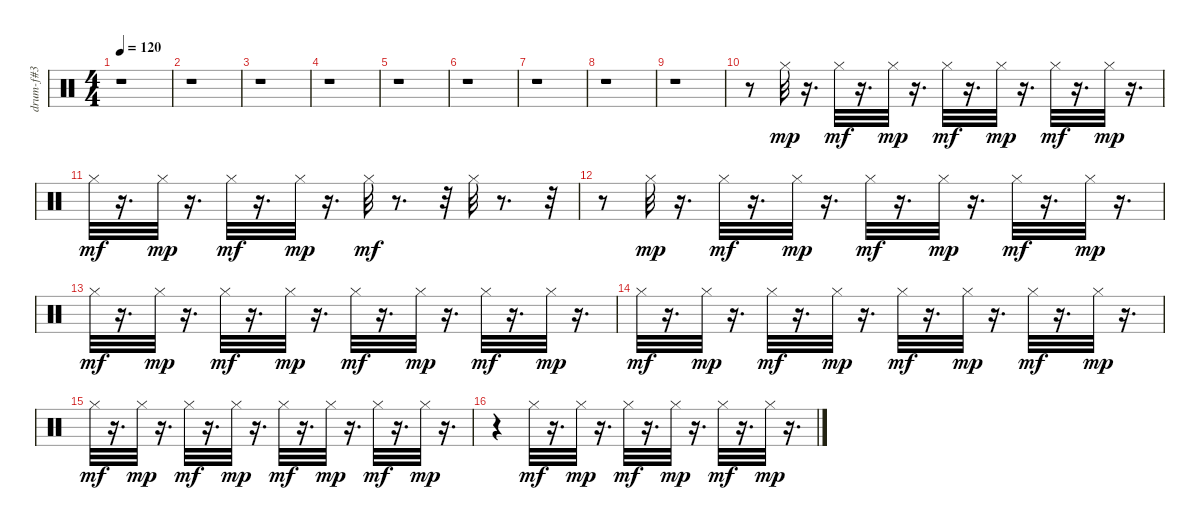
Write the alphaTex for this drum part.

\track ("drum-f#3" "drum-f#3") {instrument percussion}
\staff {score}
\articulation defaults
\ts (4 4)
\tempo 120
\clef neutral
\ks c
r.1{dy mp} |
r.1 |
r.1 |
r.1 |
r.1 |
r.1 |
r.1 |
r.1 |
r.1 |
r.8 "Hi-Hat (closed)".32 r.16{d} "Hi-Hat (closed)".32{dy mf} r.16{d} "Hi-Hat (closed)".32{dy mp} r.16{d} "Hi-Hat (closed)".32{dy mf} r.16{d} "Hi-Hat (closed)".32{dy mp} r.16{d} "Hi-Hat (closed)".32{dy mf} r.16{d} "Hi-Hat (closed)".32{dy mp} r.16{d} |
"Hi-Hat (closed)".32{dy mf} r.16{d} "Hi-Hat (closed)".32{dy mp} r.16{d} "Hi-Hat (closed)".32{dy mf} r.16{d} "Hi-Hat (closed)".32{dy mp} r.16{d} "Hi-Hat (closed)".32{dy mf} r.8{d} r.32 "Hi-Hat (closed)".32 r.8{d} r.32 |
r.8 "Hi-Hat (closed)".32{dy mp} r.16{d} "Hi-Hat (closed)".32{dy mf} r.16{d} "Hi-Hat (closed)".32{dy mp} r.16{d} "Hi-Hat (closed)".32{dy mf} r.16{d} "Hi-Hat (closed)".32{dy mp} r.16{d} "Hi-Hat (closed)".32{dy mf} r.16{d} "Hi-Hat (closed)".32{dy mp} r.16{d} |
"Hi-Hat (closed)".32{dy mf} r.16{d} "Hi-Hat (closed)".32{dy mp} r.16{d} "Hi-Hat (closed)".32{dy mf} r.16{d} "Hi-Hat (closed)".32{dy mp} r.16{d} "Hi-Hat (closed)".32{dy mf} r.16{d} "Hi-Hat (closed)".32{dy mp} r.16{d} "Hi-Hat (closed)".32{dy mf} r.16{d} "Hi-Hat (closed)".32{dy mp} r.16{d} |
"Hi-Hat (closed)".32{dy mf} r.16{d} "Hi-Hat (closed)".32{dy mp} r.16{d} "Hi-Hat (closed)".32{dy mf} r.16{d} "Hi-Hat (closed)".32{dy mp} r.16{d} "Hi-Hat (closed)".32{dy mf} r.16{d} "Hi-Hat (closed)".32{dy mp} r.16{d} "Hi-Hat (closed)".32{dy mf} r.16{d} "Hi-Hat (closed)".32{dy mp} r.16{d} |
"Hi-Hat (closed)".32{dy mf} r.16{d} "Hi-Hat (closed)".32{dy mp} r.16{d} "Hi-Hat (closed)".32{dy mf} r.16{d} "Hi-Hat (closed)".32{dy mp} r.16{d} "Hi-Hat (closed)".32{dy mf} r.16{d} "Hi-Hat (closed)".32{dy mp} r.16{d} "Hi-Hat (closed)".32{dy mf} r.16{d} "Hi-Hat (closed)".32{dy mp} r.16{d} |
r.4 "Hi-Hat (closed)".32{dy mf} r.16{d} "Hi-Hat (closed)".32{dy mp} r.16{d} "Hi-Hat (closed)".32{dy mf} r.16{d} "Hi-Hat (closed)".32{dy mp} r.16{d} "Hi-Hat (closed)".32{dy mf} r.16{d} "Hi-Hat (closed)".32{dy mp} r.16{d}
